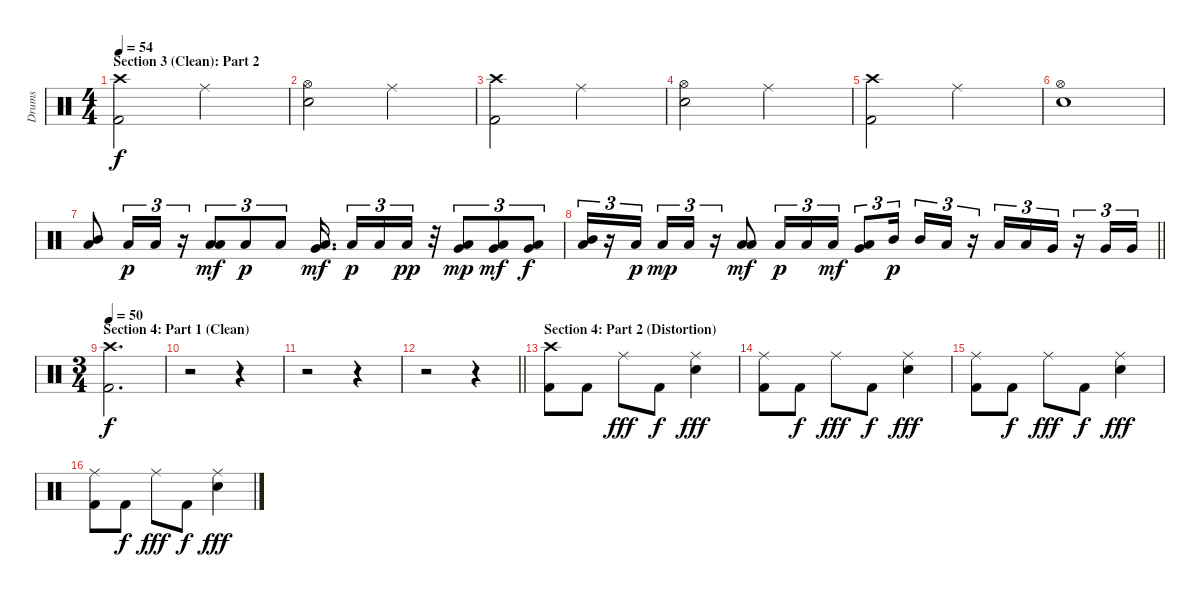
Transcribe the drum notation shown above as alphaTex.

\track ("Drums" "Drums") {instrument percussion}
\staff {score}
\articulation defaults
\ts (4 4)
\section ("" "Section 3 (Clean): Part 2")
\tempo 54
\clef neutral
\ks c
("Crash high (hit)" "Kick (hit) 2").2{dy f} "Ride (middle)".2 |
("Hi-Hat (open)" "Electric Snare (hit)").2 "Ride (middle)".2 |
("Crash high (hit)" "Kick (hit) 2").2 "Ride (middle)".2 |
("Hi-Hat (open)" "Electric Snare (hit)").2 "Ride (middle)".2 |
("Crash high (hit)" "Kick (hit) 2").2 "Ride (middle)".2 |
("Hi-Hat (open)" "Electric Snare (hit)").1 |
("Mid Tom (hit)" "Low Floor Tom (hit)").8 "Low Floor Tom (hit)".16{tu (3 2) dy p} "Low Floor Tom (hit)".16{tu (3 2)} r.16{tu (3 2)} ("Low Tom (hit)" "Low Floor Tom (hit)").8{tu (3 2) dy mf} "Low Floor Tom (hit)".8{tu (3 2) dy p} "Low Floor Tom (hit)".8{tu (3 2)} ("Very Low Tom (hit)" "Low Floor Tom (hit)").16{d dy mf beam splitsecondary} "Low Floor Tom (hit)".16{tu (3 2) dy p} "Low Floor Tom (hit)".16{tu (3 2)} "Low Floor Tom (hit)".16{tu (3 2) dy pp} r.32 ("Very Low Tom (hit)" "Low Floor Tom (hit)").8{tu (3 2) dy mp} ("Very Low Tom (hit)" "Low Floor Tom (hit)").8{tu (3 2) dy mf} ("Very Low Tom (hit)" "Low Floor Tom (hit)").8{tu (3 2) dy f} |
\barLineRight lightlight
("Mid Tom (hit)" "Low Floor Tom (hit)").16{tu (3 2)} r.16{tu (3 2)} "Low Floor Tom (hit)".16{tu (3 2) dy p beam splitsecondary} "Low Floor Tom (hit)".16{tu (3 2) dy mp} "Low Floor Tom (hit)".16{tu (3 2)} r.16{tu (3 2)} ("Low Tom (hit)" "Low Floor Tom (hit)").8{dy mf} "Low Floor Tom (hit)".16{tu (3 2) dy p} "Low Floor Tom (hit)".16{tu (3 2)} "Low Floor Tom (hit)".16{tu (3 2) dy mf} ("Very Low Tom (hit)" "Low Floor Tom (hit)").8{tu (3 2)} "Mid Tom (hit)".16{tu (3 2) dy p beam splitsecondary} "Mid Tom (hit)".16{tu (3 2)} "Low Tom (hit)".16{tu (3 2)} r.16{tu (3 2)} "Low Tom (hit)".16{tu (3 2)} "Low Tom (hit)".16{tu (3 2)} "Very Low Tom (hit)".16{tu (3 2)} r.16{tu (3 2)} "Very Low Tom (hit)".16{tu (3 2)} "Very Low Tom (hit)".16{tu (3 2)} |
\ts (3 4)
\section ("" "Section 4: Part 1 (Clean)")
\tempo 50
("Crash high (hit)" "Kick (hit) 2").2{d dy f} |
r.2 r.4 |
r.2 r.4 |
\barLineRight lightlight
r.2 r.4 |
\section ("" "Section 4: Part 2 (Distortion)")
("Crash high (hit)" "Kick (hit) 2").8 "Kick (hit) 2".8 "Ride (middle)".8{dy fff} "Kick (hit) 2".8{dy f} ("Ride (middle)" "Electric Snare (hit)").4{dy fff} |
("Ride (middle)" "Kick (hit) 2").8 "Kick (hit) 2".8{dy f} "Ride (middle)".8{dy fff} "Kick (hit) 2".8{dy f} ("Ride (middle)" "Electric Snare (hit)").4{dy fff} |
("Ride (middle)" "Kick (hit) 2").8 "Kick (hit) 2".8{dy f} "Ride (middle)".8{dy fff} "Kick (hit) 2".8{dy f} ("Ride (middle)" "Electric Snare (hit)").4{dy fff} |
("Ride (middle)" "Kick (hit) 2").8 "Kick (hit) 2".8{dy f} "Ride (middle)".8{dy fff} "Kick (hit) 2".8{dy f} ("Ride (middle)" "Electric Snare (hit)").4{dy fff}
